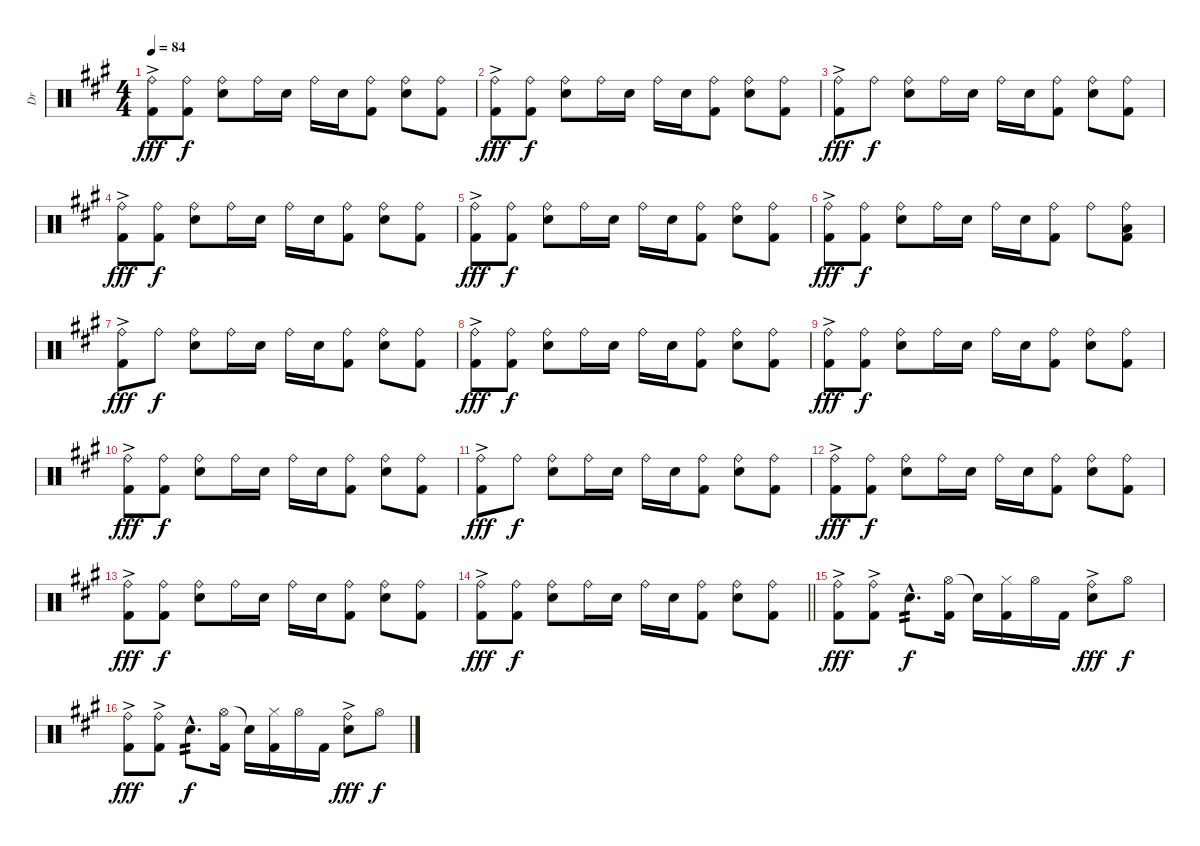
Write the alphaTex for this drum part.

\track ("Dr" "Dr") {instrument percussion}
\staff {score}
\articulation defaults
\ts (4 4)
\tempo 84
\clef neutral
\ks a
("Ride (bell)"{ac} "Kick (hit) 2"{ac}).8{dy fff} ("Ride (bell)" "Kick (hit) 2").8{dy f} ("Ride (bell)" "Electric Snare (hit)").8 "Ride (bell)".16 "Electric Snare (hit)".16 "Ride (bell)".16 "Electric Snare (hit)".16 ("Ride (bell)" "Kick (hit) 2").8 ("Ride (bell)" "Electric Snare (hit)").8 ("Ride (bell)" "Kick (hit) 2").8 |
("Ride (bell)"{ac} "Kick (hit) 2"{ac}).8{dy fff} ("Ride (bell)" "Kick (hit) 2").8{dy f} ("Ride (bell)" "Electric Snare (hit)").8 "Ride (bell)".16 "Electric Snare (hit)".16 "Ride (bell)".16 "Electric Snare (hit)".16 ("Ride (bell)" "Kick (hit) 2").8 ("Ride (bell)" "Electric Snare (hit)").8 ("Ride (bell)" "Kick (hit) 2").8 |
("Ride (bell)"{ac} "Kick (hit) 2"{ac}).8{dy fff} "Ride (bell)".8{dy f} ("Ride (bell)" "Electric Snare (hit)").8 "Ride (bell)".16 "Electric Snare (hit)".16 "Ride (bell)".16 "Electric Snare (hit)".16 ("Ride (bell)" "Kick (hit) 2").8 ("Ride (bell)" "Electric Snare (hit)").8 ("Ride (bell)" "Kick (hit) 2").8 |
("Ride (bell)"{ac} "Kick (hit) 2"{ac}).8{dy fff} ("Ride (bell)" "Kick (hit) 2").8{dy f} ("Ride (bell)" "Electric Snare (hit)").8 "Ride (bell)".16 "Electric Snare (hit)".16 "Ride (bell)".16 "Electric Snare (hit)".16 ("Ride (bell)" "Kick (hit) 2").8 ("Ride (bell)" "Electric Snare (hit)").8 ("Ride (bell)" "Kick (hit) 2").8 |
("Ride (bell)"{ac} "Kick (hit) 2"{ac}).8{dy fff} ("Ride (bell)" "Kick (hit) 2").8{dy f} ("Ride (bell)" "Electric Snare (hit)").8 "Ride (bell)".16 "Electric Snare (hit)".16 "Ride (bell)".16 "Electric Snare (hit)".16 ("Ride (bell)" "Kick (hit) 2").8 ("Ride (bell)" "Electric Snare (hit)").8 ("Ride (bell)" "Kick (hit) 2").8 |
("Ride (bell)"{ac} "Kick (hit) 2"{ac}).8{dy fff} ("Ride (bell)" "Kick (hit) 2").8{dy f} ("Ride (bell)" "Electric Snare (hit)").8 "Ride (bell)".16 "Electric Snare (hit)".16 "Ride (bell)".16 "Electric Snare (hit)".16 ("Ride (bell)" "Kick (hit) 2").8 "Ride (bell)".8 ("Ride (bell)" "Low Tom (hit)" "Kick (hit) 2").8 |
("Ride (bell)"{ac} "Kick (hit) 2"{ac}).8{dy fff} "Ride (bell)".8{dy f} ("Ride (bell)" "Electric Snare (hit)").8 "Ride (bell)".16 "Electric Snare (hit)".16 "Ride (bell)".16 "Electric Snare (hit)".16 ("Ride (bell)" "Kick (hit) 2").8 ("Ride (bell)" "Electric Snare (hit)").8 ("Ride (bell)" "Kick (hit) 2").8 |
("Ride (bell)"{ac} "Kick (hit) 2"{ac}).8{dy fff} ("Ride (bell)" "Kick (hit) 2").8{dy f} ("Ride (bell)" "Electric Snare (hit)").8 "Ride (bell)".16 "Electric Snare (hit)".16 "Ride (bell)".16 "Electric Snare (hit)".16 ("Ride (bell)" "Kick (hit) 2").8 ("Ride (bell)" "Electric Snare (hit)").8 ("Ride (bell)" "Kick (hit) 2").8 |
("Ride (bell)"{ac} "Kick (hit) 2"{ac}).8{dy fff} ("Ride (bell)" "Kick (hit) 2").8{dy f} ("Ride (bell)" "Electric Snare (hit)").8 "Ride (bell)".16 "Electric Snare (hit)".16 "Ride (bell)".16 "Electric Snare (hit)".16 ("Ride (bell)" "Kick (hit) 2").8 ("Ride (bell)" "Electric Snare (hit)").8 ("Ride (bell)" "Kick (hit) 2").8 |
("Ride (bell)"{ac} "Kick (hit) 2"{ac}).8{dy fff} ("Ride (bell)" "Kick (hit) 2").8{dy f} ("Ride (bell)" "Electric Snare (hit)").8 "Ride (bell)".16 "Electric Snare (hit)".16 "Ride (bell)".16 "Electric Snare (hit)".16 ("Ride (bell)" "Kick (hit) 2").8 ("Ride (bell)" "Electric Snare (hit)").8 ("Ride (bell)" "Kick (hit) 2").8 |
("Ride (bell)"{ac} "Kick (hit) 2"{ac}).8{dy fff} "Ride (bell)".8{dy f} ("Ride (bell)" "Electric Snare (hit)").8 "Ride (bell)".16 "Electric Snare (hit)".16 "Ride (bell)".16 "Electric Snare (hit)".16 ("Ride (bell)" "Kick (hit) 2").8 ("Ride (bell)" "Electric Snare (hit)").8 ("Ride (bell)" "Kick (hit) 2").8 |
("Ride (bell)"{ac} "Kick (hit) 2"{ac}).8{dy fff} ("Ride (bell)" "Kick (hit) 2").8{dy f} ("Ride (bell)" "Electric Snare (hit)").8 "Ride (bell)".16 "Electric Snare (hit)".16 "Ride (bell)".16 "Electric Snare (hit)".16 ("Ride (bell)" "Kick (hit) 2").8 ("Ride (bell)" "Electric Snare (hit)").8 ("Ride (bell)" "Kick (hit) 2").8 |
("Ride (bell)"{ac} "Kick (hit) 2"{ac}).8{dy fff} ("Ride (bell)" "Kick (hit) 2").8{dy f} ("Ride (bell)" "Electric Snare (hit)").8 "Ride (bell)".16 "Electric Snare (hit)".16 "Ride (bell)".16 "Electric Snare (hit)".16 ("Ride (bell)" "Kick (hit) 2").8 ("Ride (bell)" "Electric Snare (hit)").8 ("Ride (bell)" "Kick (hit) 2").8 |
\barLineRight lightlight
("Ride (bell)"{ac} "Kick (hit) 2"{ac}).8{dy fff} ("Ride (bell)" "Kick (hit) 2").8{dy f} ("Ride (bell)" "Electric Snare (hit)").8 "Ride (bell)".16 "Electric Snare (hit)".16 "Ride (bell)".16 "Electric Snare (hit)".16 ("Ride (bell)" "Kick (hit) 2").8 ("Ride (bell)" "Electric Snare (hit)").8 ("Ride (bell)" "Kick (hit) 2").8 |
("Ride (bell)"{ac} "Kick (hit) 2"{ac}).8{dy fff} ("Ride (bell)"{ac} "Kick (hit) 2"{ac}).8 "Electric Snare (hit)"{hac}.8{d tp 2 dy f} ("Hi-Hat (open)" "Kick (hit) 2").16 "Snare (hit)"{t}.16 ("Hi-Hat (closed)" "Kick (hit) 2").16 "Hi-Hat (open)".16 "Kick (hit) 2".16 ("Ride (bell)"{ac} "Electric Snare (hit)"{ac}).8{dy fff} "Hi-Hat (open)".8{dy f} |
("Ride (bell)"{ac} "Kick (hit) 2"{ac}).8{dy fff} ("Ride (bell)"{ac} "Kick (hit) 2"{ac}).8 "Electric Snare (hit)"{hac}.8{d tp 2 dy f} ("Hi-Hat (open)" "Kick (hit) 2").16 "Snare (hit)"{t}.16 ("Hi-Hat (closed)" "Kick (hit) 2").16 "Hi-Hat (open)".16 "Kick (hit) 2".16 ("Ride (bell)"{ac} "Electric Snare (hit)"{ac}).8{dy fff} "Hi-Hat (open)".8{dy f}
